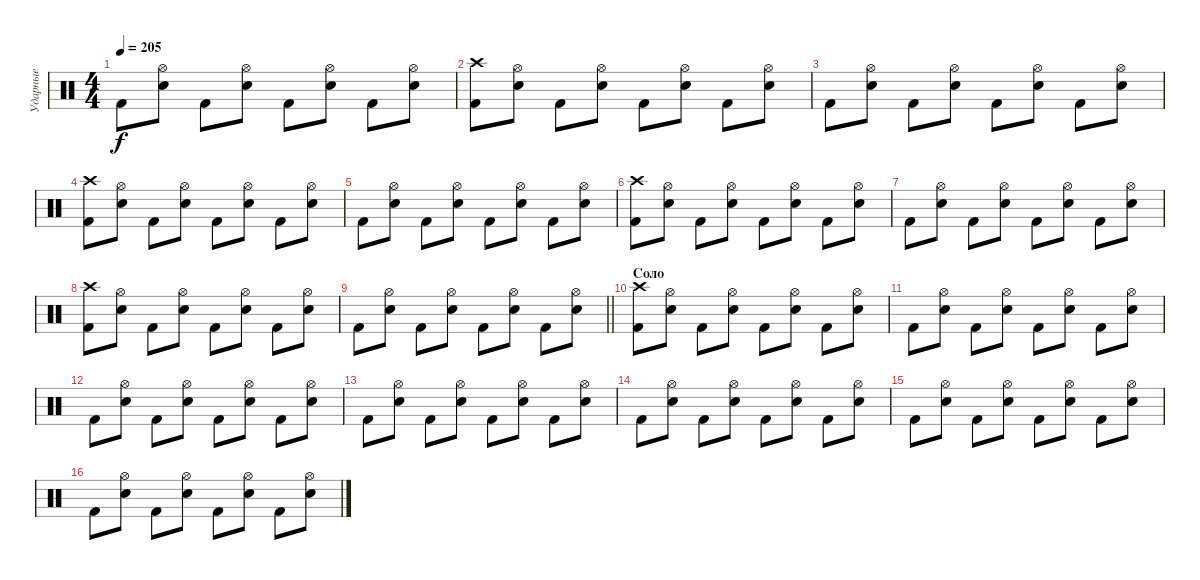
\track ("Ударные" "Ударные") {instrument percussion}
\staff {score}
\articulation defaults
\ts (4 4)
\tempo 205
\clef neutral
\ks c "Kick (hit) 2".8{dy f}
("Hi-Hat (open)" "Electric Snare (hit)").8 "Kick (hit) 2".8 ("Hi-Hat (open)" "Electric Snare (hit)").8 "Kick (hit) 2".8 ("Hi-Hat (open)" "Electric Snare (hit)").8 "Kick (hit) 2".8 ("Hi-Hat (open)" "Electric Snare (hit)").8 |
("Crash high (hit)" "Kick (hit) 2").8 ("Hi-Hat (open)" "Electric Snare (hit)").8 "Kick (hit) 2".8 ("Hi-Hat (open)" "Electric Snare (hit)").8 "Kick (hit) 2".8 ("Hi-Hat (open)" "Electric Snare (hit)").8 "Kick (hit) 2".8 ("Hi-Hat (open)" "Electric Snare (hit)").8 |
"Kick (hit) 2".8 ("Hi-Hat (open)" "Electric Snare (hit)").8 "Kick (hit) 2".8 ("Hi-Hat (open)" "Electric Snare (hit)").8 "Kick (hit) 2".8 ("Hi-Hat (open)" "Electric Snare (hit)").8 "Kick (hit) 2".8 ("Hi-Hat (open)" "Electric Snare (hit)").8 |
("Crash high (hit)" "Kick (hit) 2").8 ("Hi-Hat (open)" "Electric Snare (hit)").8 "Kick (hit) 2".8 ("Hi-Hat (open)" "Electric Snare (hit)").8 "Kick (hit) 2".8 ("Hi-Hat (open)" "Electric Snare (hit)").8 "Kick (hit) 2".8 ("Hi-Hat (open)" "Electric Snare (hit)").8 |
"Kick (hit) 2".8 ("Hi-Hat (open)" "Electric Snare (hit)").8 "Kick (hit) 2".8 ("Hi-Hat (open)" "Electric Snare (hit)").8 "Kick (hit) 2".8 ("Hi-Hat (open)" "Electric Snare (hit)").8 "Kick (hit) 2".8 ("Hi-Hat (open)" "Electric Snare (hit)").8 |
("Crash high (hit)" "Kick (hit) 2").8 ("Hi-Hat (open)" "Electric Snare (hit)").8 "Kick (hit) 2".8 ("Hi-Hat (open)" "Electric Snare (hit)").8 "Kick (hit) 2".8 ("Hi-Hat (open)" "Electric Snare (hit)").8 "Kick (hit) 2".8 ("Hi-Hat (open)" "Electric Snare (hit)").8 |
"Kick (hit) 2".8 ("Hi-Hat (open)" "Electric Snare (hit)").8 "Kick (hit) 2".8 ("Hi-Hat (open)" "Electric Snare (hit)").8 "Kick (hit) 2".8 ("Hi-Hat (open)" "Electric Snare (hit)").8 "Kick (hit) 2".8 ("Hi-Hat (open)" "Electric Snare (hit)").8 |
("Crash high (hit)" "Kick (hit) 2").8 ("Hi-Hat (open)" "Electric Snare (hit)").8 "Kick (hit) 2".8 ("Hi-Hat (open)" "Electric Snare (hit)").8 "Kick (hit) 2".8 ("Hi-Hat (open)" "Electric Snare (hit)").8 "Kick (hit) 2".8 ("Hi-Hat (open)" "Electric Snare (hit)").8 |
\barLineRight lightlight "Kick (hit) 2".8
("Hi-Hat (open)" "Electric Snare (hit)").8 "Kick (hit) 2".8 ("Hi-Hat (open)" "Electric Snare (hit)").8 "Kick (hit) 2".8 ("Hi-Hat (open)" "Electric Snare (hit)").8 "Kick (hit) 2".8 ("Hi-Hat (open)" "Electric Snare (hit)").8 |
\section ("" "Соло")
("Crash high (hit)" "Kick (hit) 2").8 ("Hi-Hat (open)" "Electric Snare (hit)").8 "Kick (hit) 2".8 ("Hi-Hat (open)" "Electric Snare (hit)").8 "Kick (hit) 2".8 ("Hi-Hat (open)" "Electric Snare (hit)").8 "Kick (hit) 2".8 ("Hi-Hat (open)" "Electric Snare (hit)").8 |
"Kick (hit) 2".8 ("Hi-Hat (open)" "Electric Snare (hit)").8 "Kick (hit) 2".8 ("Hi-Hat (open)" "Electric Snare (hit)").8 "Kick (hit) 2".8 ("Hi-Hat (open)" "Electric Snare (hit)").8 "Kick (hit) 2".8 ("Hi-Hat (open)" "Electric Snare (hit)").8 |
"Kick (hit) 2".8 ("Hi-Hat (open)" "Electric Snare (hit)").8 "Kick (hit) 2".8 ("Hi-Hat (open)" "Electric Snare (hit)").8 "Kick (hit) 2".8 ("Hi-Hat (open)" "Electric Snare (hit)").8 "Kick (hit) 2".8 ("Hi-Hat (open)" "Electric Snare (hit)").8 |
"Kick (hit) 2".8 ("Hi-Hat (open)" "Electric Snare (hit)").8 "Kick (hit) 2".8 ("Hi-Hat (open)" "Electric Snare (hit)").8 "Kick (hit) 2".8 ("Hi-Hat (open)" "Electric Snare (hit)").8 "Kick (hit) 2".8 ("Hi-Hat (open)" "Electric Snare (hit)").8 |
"Kick (hit) 2".8 ("Hi-Hat (open)" "Electric Snare (hit)").8 "Kick (hit) 2".8 ("Hi-Hat (open)" "Electric Snare (hit)").8 "Kick (hit) 2".8 ("Hi-Hat (open)" "Electric Snare (hit)").8 "Kick (hit) 2".8 ("Hi-Hat (open)" "Electric Snare (hit)").8 |
"Kick (hit) 2".8 ("Hi-Hat (open)" "Electric Snare (hit)").8 "Kick (hit) 2".8 ("Hi-Hat (open)" "Electric Snare (hit)").8 "Kick (hit) 2".8 ("Hi-Hat (open)" "Electric Snare (hit)").8 "Kick (hit) 2".8 ("Hi-Hat (open)" "Electric Snare (hit)").8 |
"Kick (hit) 2".8 ("Hi-Hat (open)" "Electric Snare (hit)").8 "Kick (hit) 2".8 ("Hi-Hat (open)" "Electric Snare (hit)").8 "Kick (hit) 2".8 ("Hi-Hat (open)" "Electric Snare (hit)").8 "Kick (hit) 2".8 ("Hi-Hat (open)" "Electric Snare (hit)").8
